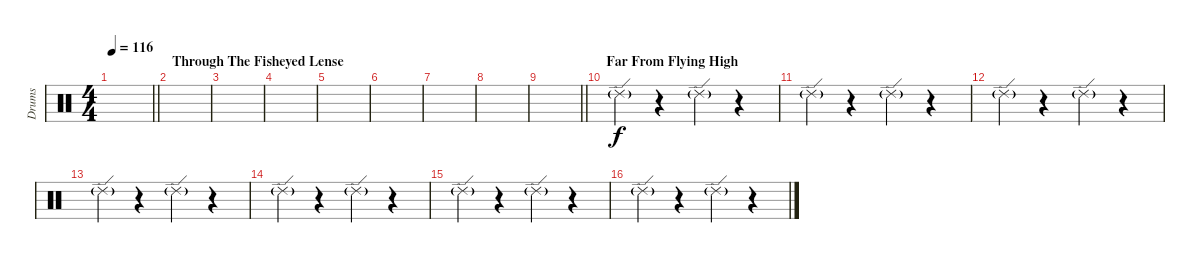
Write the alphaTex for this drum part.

\track ("Drums" "Drums") {instrument percussion}
\staff {score}
\articulation defaults
\ts (4 4)
\tempo 116
\clef neutral
\barLineRight lightlight
\ks c
|
\section ("" "Through The Fisheyed Lense")
|
|
|
|
|
|
|
\barLineRight lightlight
|
\section ("" "Far From Flying High")
"Ride (edge) 2"{g}.4 r.4 "Ride (edge) 2"{g}.4 r.4 |
"Ride (edge) 2"{g}.4 r.4 "Ride (edge) 2"{g}.4 r.4 |
"Ride (edge) 2"{g}.4 r.4 "Ride (edge) 2"{g}.4 r.4 |
"Ride (edge) 2"{g}.4 r.4 "Ride (edge) 2"{g}.4 r.4 |
"Ride (edge) 2"{g}.4 r.4 "Ride (edge) 2"{g}.4 r.4 |
"Ride (edge) 2"{g}.4 r.4 "Ride (edge) 2"{g}.4 r.4 |
"Ride (edge) 2"{g}.4 r.4 "Ride (edge) 2"{g}.4 r.4
